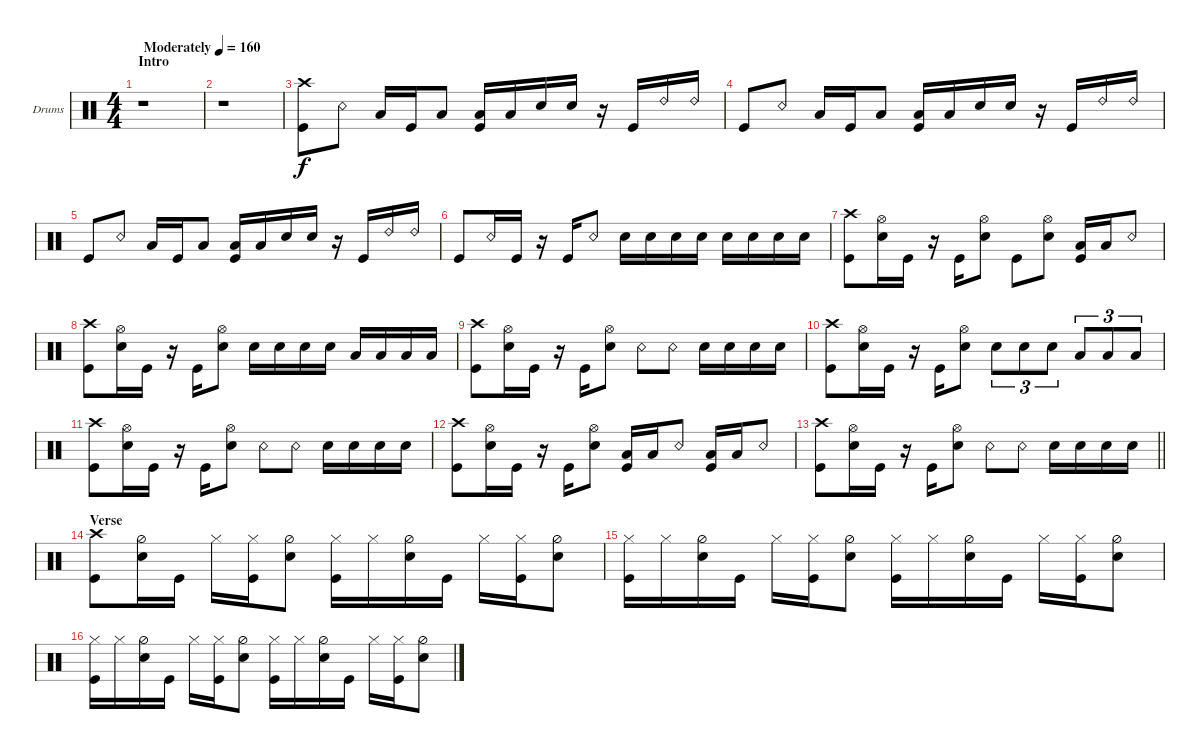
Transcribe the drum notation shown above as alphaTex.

\defaultSystemsLayout 4
\bracketExtendMode groupsimilarinstruments
\firstSystemTrackNameOrientation horizontal
\otherSystemsTrackNameOrientation horizontal
\track ("Drums" "Drums") {instrument percussion}
\staff {score}
\articulation defaults
\ts (4 4)
\beaming (8 2 2 2 2)
\section ("" "Intro")
\tempo (160 "Moderately")
\clef neutral
\scale
0.472222
\ks c
r.1{dy f} |
\scale
0.263889 r.1 |
\scale
0.263889 ("Kick (hit)" "Crash high (hit)").8 "Snare (rim shot)".8 "Low Tom (hit)".16 "Kick (hit)".16 "Low Tom (hit)".8 ("Kick (hit)" "Low Tom (hit)").16 "Low Tom (hit)".16 "Snare (hit) 2".16 "Snare (hit) 2".16 r.16 "Kick (hit)".16 "Ride (bell) 2".16 "Ride (bell) 2".16 |
"Kick (hit)".8 "Snare (rim shot)".8 "Low Tom (hit)".16 "Kick (hit)".16 "Low Tom (hit)".8 ("Kick (hit)" "Low Tom (hit)").16 "Low Tom (hit)".16 "Snare (hit) 2".16 "Snare (hit) 2".16 r.16 "Kick (hit)".16 "Ride (bell) 2".16 "Ride (bell) 2".16 |
"Kick (hit)".8 "Snare (rim shot)".8 "Low Tom (hit)".16 "Kick (hit)".16 "Low Tom (hit)".8 ("Kick (hit)" "Low Tom (hit)").16 "Low Tom (hit)".16 "Snare (hit) 2".16 "Snare (hit) 2".16 r.16 "Kick (hit)".16 "Ride (bell) 2".16 "Ride (bell) 2".16 |
"Kick (hit)".8 "Snare (rim shot)".16 "Kick (hit)".16 r.16 "Kick (hit)".16 "Snare (rim shot)".8 "Snare (hit) 2".16 "Snare (hit) 2".16 "Snare (hit) 2".16 "Snare (hit) 2".16 "Snare (hit) 2".16 "Snare (hit) 2".16 "Snare (hit) 2".16 "Snare (hit) 2".16 |
("Kick (hit)" "Crash high (hit)").8 ("Snare (hit) 2" "Hi-Hat (open)").16 "Kick (hit)".16 r.16 "Kick (hit)".16 ("Snare (hit) 2" "Hi-Hat (open)").8 "Kick (hit)".8 ("Snare (hit) 2" "Hi-Hat (open)").8 ("Kick (hit)" "Low Tom (hit)").16 "Low Tom (hit)".16 "Snare (rim shot)".8 |
("Kick (hit)" "Crash high (hit)").8 ("Snare (hit) 2" "Hi-Hat (open)").16 "Kick (hit)".16 r.16 "Kick (hit)".16 ("Snare (hit) 2" "Hi-Hat (open)").8 "Snare (hit) 2".16 "Snare (hit) 2".16 "Snare (hit) 2".16 "Snare (hit) 2".16 "Low Tom (hit)".16 "Low Tom (hit)".16 "Low Tom (hit)".16 "Low Tom (hit)".16 |
("Kick (hit)" "Crash high (hit)").8 ("Snare (hit) 2" "Hi-Hat (open)").16 "Kick (hit)".16 r.16 "Kick (hit)".16 ("Snare (hit) 2" "Hi-Hat (open)").8 "Snare (rim shot)".8 "Snare (rim shot)".8 "Snare (hit) 2".16 "Snare (hit) 2".16 "Snare (hit) 2".16 "Snare (hit) 2".16 |
("Kick (hit)" "Crash high (hit)").8 ("Snare (hit) 2" "Hi-Hat (open)").16 "Kick (hit)".16 r.16 "Kick (hit)".16 ("Snare (hit) 2" "Hi-Hat (open)").8 "Snare (hit) 2".8{tu (3 2)} "Snare (hit) 2".8{tu (3 2)} "Snare (hit) 2".8{tu (3 2)} "Low Tom (hit)".8{tu (3 2)} "Low Tom (hit)".8{tu (3 2)} "Low Tom (hit)".8{tu (3 2)} |
("Kick (hit)" "Crash high (hit)").8 ("Snare (hit) 2" "Hi-Hat (open)").16 "Kick (hit)".16 r.16 "Kick (hit)".16 ("Snare (hit) 2" "Hi-Hat (open)").8 "Snare (rim shot)".8 "Snare (rim shot)".8 "Snare (hit) 2".16 "Snare (hit) 2".16 "Snare (hit) 2".16 "Snare (hit) 2".16 |
("Kick (hit)" "Crash high (hit)").8 ("Snare (hit) 2" "Hi-Hat (open)").16 "Kick (hit)".16 r.16 "Kick (hit)".16 ("Snare (hit) 2" "Hi-Hat (open)").8 ("Low Tom (hit)" "Kick (hit)").16 "Low Tom (hit)".16 "Snare (rim shot)".8 ("Low Tom (hit)" "Kick (hit)").16 "Low Tom (hit)".16 "Snare (rim shot)".8 |
\barLineRight lightlight
("Kick (hit)" "Crash high (hit)").8 ("Snare (hit) 2" "Hi-Hat (open)").16 "Kick (hit)".16 r.16 "Kick (hit)".16 ("Snare (hit) 2" "Hi-Hat (open)").8 "Snare (rim shot)".8 "Snare (rim shot)".8 "Snare (hit) 2".16 "Snare (hit) 2".16 "Snare (hit) 2".16 "Snare (hit) 2".16 |
\section ("" "Verse")
("Kick (hit)" "Crash high (hit)").8 ("Hi-Hat (half)" "Snare (hit) 2").16 "Kick (hit)".16 "Hi-Hat (closed)".16 ("Kick (hit)" "Hi-Hat (closed)").16 ("Snare (hit) 2" "Hi-Hat (half)").8 ("Hi-Hat (closed)" "Kick (hit)").16 "Hi-Hat (closed)".16 ("Hi-Hat (half)" "Snare (hit) 2").16 "Kick (hit)".16 "Hi-Hat (closed)".16 ("Hi-Hat (closed)" "Kick (hit)").16 ("Snare (hit) 2" "Hi-Hat (half)").8 |
("Hi-Hat (closed)" "Kick (hit)").16 "Hi-Hat (closed)".16 ("Hi-Hat (half)" "Snare (hit) 2").16 "Kick (hit)".16 "Hi-Hat (closed)".16 ("Kick (hit)" "Hi-Hat (closed)").16 ("Snare (hit) 2" "Hi-Hat (half)").8 ("Hi-Hat (closed)" "Kick (hit)").16 "Hi-Hat (closed)".16 ("Hi-Hat (half)" "Snare (hit) 2").16 "Kick (hit)".16 "Hi-Hat (closed)".16 ("Hi-Hat (closed)" "Kick (hit)").16 ("Snare (hit) 2" "Hi-Hat (half)").8 |
("Hi-Hat (closed)" "Kick (hit)").16 "Hi-Hat (closed)".16 ("Hi-Hat (half)" "Snare (hit) 2").16 "Kick (hit)".16 "Hi-Hat (closed)".16 ("Kick (hit)" "Hi-Hat (closed)").16 ("Snare (hit) 2" "Hi-Hat (half)").8 ("Hi-Hat (closed)" "Kick (hit)").16 "Hi-Hat (closed)".16 ("Hi-Hat (half)" "Snare (hit) 2").16 "Kick (hit)".16 "Hi-Hat (closed)".16 ("Hi-Hat (closed)" "Kick (hit)").16 ("Snare (hit) 2" "Hi-Hat (half)").8
